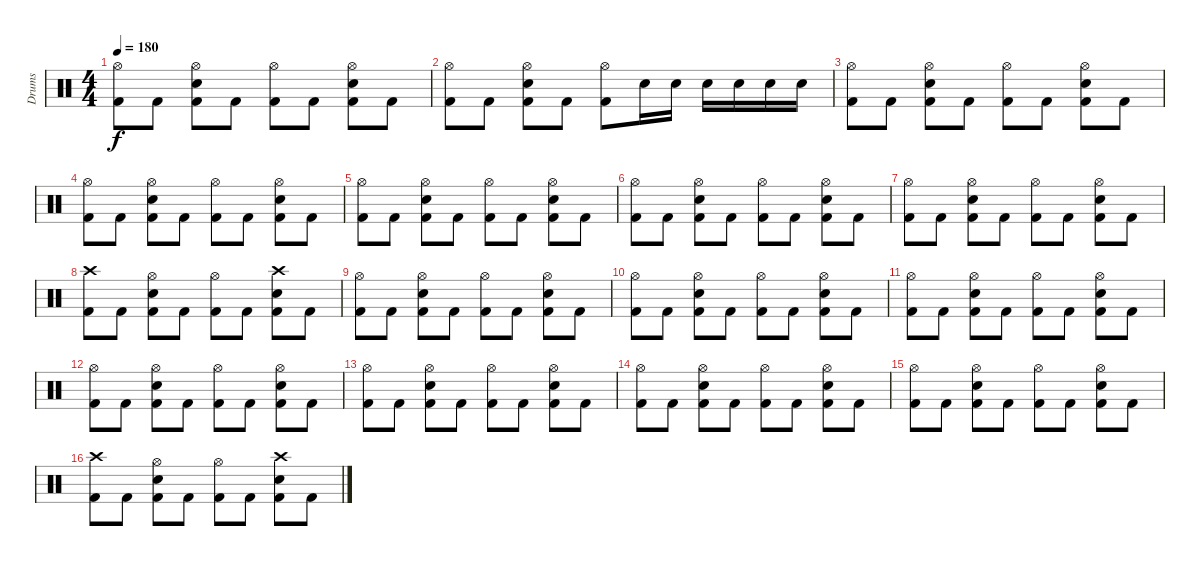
\track ("Drums" "Drums") {instrument percussion}
\staff {score}
\articulation defaults
\ts (4 4)
\tempo 180
\clef neutral
\ks c
("Hi-Hat (open)" "Kick (hit) 2").8{dy f} "Kick (hit) 2".8 ("Hi-Hat (open)" "Snare (hit) 2" "Kick (hit) 2").8 "Kick (hit) 2".8 ("Hi-Hat (open)" "Kick (hit) 2").8 "Kick (hit) 2".8 ("Hi-Hat (open)" "Snare (hit) 2" "Kick (hit) 2").8 "Kick (hit) 2".8 |
("Hi-Hat (open)" "Kick (hit) 2").8 "Kick (hit) 2".8 ("Hi-Hat (open)" "Snare (hit) 2" "Kick (hit) 2").8 "Kick (hit) 2".8 ("Hi-Hat (open)" "Kick (hit) 2").8 "Snare (hit) 2".16 "Snare (hit) 2".16 "Snare (hit) 2".16 "Snare (hit) 2".16 "Snare (hit) 2".16 "Snare (hit) 2".16 |
("Hi-Hat (open)" "Kick (hit) 2").8 "Kick (hit) 2".8 ("Hi-Hat (open)" "Snare (hit) 2" "Kick (hit) 2").8 "Kick (hit) 2".8 ("Hi-Hat (open)" "Kick (hit) 2").8 "Kick (hit) 2".8 ("Hi-Hat (open)" "Snare (hit) 2" "Kick (hit) 2").8 "Kick (hit) 2".8 |
("Hi-Hat (open)" "Kick (hit) 2").8 "Kick (hit) 2".8 ("Hi-Hat (open)" "Snare (hit) 2" "Kick (hit) 2").8 "Kick (hit) 2".8 ("Hi-Hat (open)" "Kick (hit) 2").8 "Kick (hit) 2".8 ("Hi-Hat (open)" "Snare (hit) 2" "Kick (hit) 2").8 "Kick (hit) 2".8 |
("Hi-Hat (open)" "Kick (hit) 2").8 "Kick (hit) 2".8 ("Hi-Hat (open)" "Snare (hit) 2" "Kick (hit) 2").8 "Kick (hit) 2".8 ("Hi-Hat (open)" "Kick (hit) 2").8 "Kick (hit) 2".8 ("Hi-Hat (open)" "Snare (hit) 2" "Kick (hit) 2").8 "Kick (hit) 2".8 |
("Hi-Hat (open)" "Kick (hit) 2").8 "Kick (hit) 2".8 ("Hi-Hat (open)" "Snare (hit) 2" "Kick (hit) 2").8 "Kick (hit) 2".8 ("Hi-Hat (open)" "Kick (hit) 2").8 "Kick (hit) 2".8 ("Hi-Hat (open)" "Snare (hit) 2" "Kick (hit) 2").8 "Kick (hit) 2".8 |
("Hi-Hat (open)" "Kick (hit) 2").8 "Kick (hit) 2".8 ("Hi-Hat (open)" "Snare (hit) 2" "Kick (hit) 2").8 "Kick (hit) 2".8 ("Hi-Hat (open)" "Kick (hit) 2").8 "Kick (hit) 2".8 ("Hi-Hat (open)" "Snare (hit) 2" "Kick (hit) 2").8 "Kick (hit) 2".8 |
("Crash high (hit)" "Kick (hit) 2").8 "Kick (hit) 2".8 ("Hi-Hat (open)" "Snare (hit) 2" "Kick (hit) 2").8 "Kick (hit) 2".8 ("Hi-Hat (open)" "Kick (hit) 2").8 "Kick (hit) 2".8 ("Crash high (hit)" "Snare (hit) 2" "Kick (hit) 2").8 "Kick (hit) 2".8 |
("Hi-Hat (open)" "Kick (hit) 2").8 "Kick (hit) 2".8 ("Hi-Hat (open)" "Snare (hit) 2" "Kick (hit) 2").8 "Kick (hit) 2".8 ("Hi-Hat (open)" "Kick (hit) 2").8 "Kick (hit) 2".8 ("Hi-Hat (open)" "Snare (hit) 2" "Kick (hit) 2").8 "Kick (hit) 2".8 |
("Hi-Hat (open)" "Kick (hit) 2").8 "Kick (hit) 2".8 ("Hi-Hat (open)" "Snare (hit) 2" "Kick (hit) 2").8 "Kick (hit) 2".8 ("Hi-Hat (open)" "Kick (hit) 2").8 "Kick (hit) 2".8 ("Hi-Hat (open)" "Snare (hit) 2" "Kick (hit) 2").8 "Kick (hit) 2".8 |
("Hi-Hat (open)" "Kick (hit) 2").8 "Kick (hit) 2".8 ("Hi-Hat (open)" "Snare (hit) 2" "Kick (hit) 2").8 "Kick (hit) 2".8 ("Hi-Hat (open)" "Kick (hit) 2").8 "Kick (hit) 2".8 ("Hi-Hat (open)" "Snare (hit) 2" "Kick (hit) 2").8 "Kick (hit) 2".8 |
("Hi-Hat (open)" "Kick (hit) 2").8 "Kick (hit) 2".8 ("Hi-Hat (open)" "Snare (hit) 2" "Kick (hit) 2").8 "Kick (hit) 2".8 ("Hi-Hat (open)" "Kick (hit) 2").8 "Kick (hit) 2".8 ("Hi-Hat (open)" "Snare (hit) 2" "Kick (hit) 2").8 "Kick (hit) 2".8 |
("Hi-Hat (open)" "Kick (hit) 2").8 "Kick (hit) 2".8 ("Hi-Hat (open)" "Snare (hit) 2" "Kick (hit) 2").8 "Kick (hit) 2".8 ("Hi-Hat (open)" "Kick (hit) 2").8 "Kick (hit) 2".8 ("Hi-Hat (open)" "Snare (hit) 2" "Kick (hit) 2").8 "Kick (hit) 2".8 |
("Hi-Hat (open)" "Kick (hit) 2").8 "Kick (hit) 2".8 ("Hi-Hat (open)" "Snare (hit) 2" "Kick (hit) 2").8 "Kick (hit) 2".8 ("Hi-Hat (open)" "Kick (hit) 2").8 "Kick (hit) 2".8 ("Hi-Hat (open)" "Snare (hit) 2" "Kick (hit) 2").8 "Kick (hit) 2".8 |
("Hi-Hat (open)" "Kick (hit) 2").8 "Kick (hit) 2".8 ("Hi-Hat (open)" "Snare (hit) 2" "Kick (hit) 2").8 "Kick (hit) 2".8 ("Hi-Hat (open)" "Kick (hit) 2").8 "Kick (hit) 2".8 ("Hi-Hat (open)" "Snare (hit) 2" "Kick (hit) 2").8 "Kick (hit) 2".8 |
("Crash high (hit)" "Kick (hit) 2").8 "Kick (hit) 2".8 ("Hi-Hat (open)" "Snare (hit) 2" "Kick (hit) 2").8 "Kick (hit) 2".8 ("Hi-Hat (open)" "Kick (hit) 2").8 "Kick (hit) 2".8 ("Crash high (hit)" "Snare (hit) 2" "Kick (hit) 2").8 "Kick (hit) 2".8
